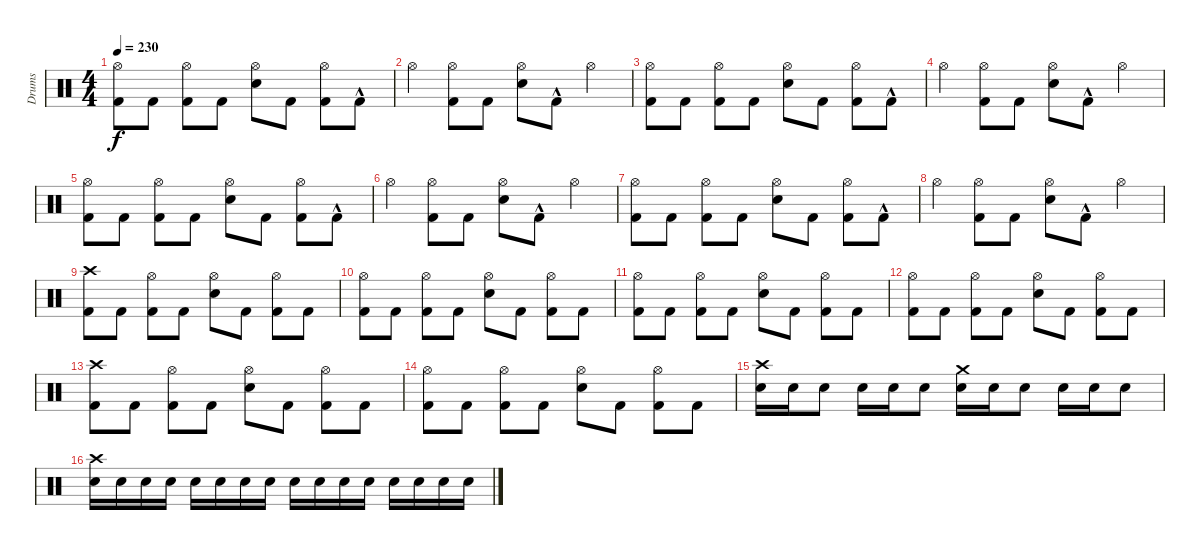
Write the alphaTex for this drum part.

\track ("Drums" "Drums") {instrument percussion}
\staff {score}
\articulation defaults
\ts (4 4)
\tempo 230
\clef neutral
\ks c
("Kick (hit) 2" "Hi-Hat (open)").8{dy f} "Kick (hit) 2".8 ("Hi-Hat (open)" "Kick (hit) 2").8 "Kick (hit) 2".8 ("Hi-Hat (open)" "Electric Snare (hit)").8 "Kick (hit) 2".8 ("Hi-Hat (open)" "Kick (hit) 2").8 "Kick (hit) 2"{hac}.8 |
"Hi-Hat (open)".4 ("Hi-Hat (open)" "Kick (hit) 2").8 "Kick (hit) 2".8 ("Hi-Hat (open)" "Electric Snare (hit)").8 "Kick (hit) 2"{hac}.8 "Hi-Hat (open)".4 |
("Hi-Hat (open)" "Kick (hit) 2").8 "Kick (hit) 2".8 ("Hi-Hat (open)" "Kick (hit) 2").8 "Kick (hit) 2".8 ("Hi-Hat (open)" "Electric Snare (hit)").8 "Kick (hit) 2".8 ("Hi-Hat (open)" "Kick (hit) 2").8 "Kick (hit) 2"{hac}.8 |
"Hi-Hat (open)".4 ("Hi-Hat (open)" "Kick (hit) 2").8 "Kick (hit) 2".8 ("Hi-Hat (open)" "Electric Snare (hit)").8 "Kick (hit) 2"{hac}.8 "Hi-Hat (open)".4 |
("Kick (hit) 2" "Hi-Hat (open)").8 "Kick (hit) 2".8 ("Hi-Hat (open)" "Kick (hit) 2").8 "Kick (hit) 2".8 ("Hi-Hat (open)" "Electric Snare (hit)").8 "Kick (hit) 2".8 ("Hi-Hat (open)" "Kick (hit) 2").8 "Kick (hit) 2"{hac}.8 |
"Hi-Hat (open)".4 ("Hi-Hat (open)" "Kick (hit) 2").8 "Kick (hit) 2".8 ("Hi-Hat (open)" "Electric Snare (hit)").8 "Kick (hit) 2"{hac}.8 "Hi-Hat (open)".4 |
("Hi-Hat (open)" "Kick (hit) 2").8 "Kick (hit) 2".8 ("Hi-Hat (open)" "Kick (hit) 2").8 "Kick (hit) 2".8 ("Hi-Hat (open)" "Electric Snare (hit)").8 "Kick (hit) 2".8 ("Hi-Hat (open)" "Kick (hit) 2").8 "Kick (hit) 2"{hac}.8 |
"Hi-Hat (open)".4 ("Hi-Hat (open)" "Kick (hit) 2").8 "Kick (hit) 2".8 ("Hi-Hat (open)" "Electric Snare (hit)").8 "Kick (hit) 2"{hac}.8 "Hi-Hat (open)".4 |
("Crash high (hit)" "Kick (hit) 2").8 "Kick (hit) 2".8 ("Hi-Hat (open)" "Kick (hit) 2").8 "Kick (hit) 2".8 ("Hi-Hat (open)" "Electric Snare (hit)").8 "Kick (hit) 2".8 ("Hi-Hat (open)" "Kick (hit) 2").8 "Kick (hit) 2".8 |
("Hi-Hat (open)" "Kick (hit) 2").8 "Kick (hit) 2".8 ("Hi-Hat (open)" "Kick (hit) 2").8 "Kick (hit) 2".8 ("Hi-Hat (open)" "Electric Snare (hit)").8 "Kick (hit) 2".8 ("Hi-Hat (open)" "Kick (hit) 2").8 "Kick (hit) 2".8 |
("Hi-Hat (open)" "Kick (hit) 2").8 "Kick (hit) 2".8 ("Hi-Hat (open)" "Kick (hit) 2").8 "Kick (hit) 2".8 ("Hi-Hat (open)" "Electric Snare (hit)").8 "Kick (hit) 2".8 ("Hi-Hat (open)" "Kick (hit) 2").8 "Kick (hit) 2".8 |
("Hi-Hat (open)" "Kick (hit) 2").8 "Kick (hit) 2".8 ("Hi-Hat (open)" "Kick (hit) 2").8 "Kick (hit) 2".8 ("Hi-Hat (open)" "Electric Snare (hit)").8 "Kick (hit) 2".8 ("Hi-Hat (open)" "Kick (hit) 2").8 "Kick (hit) 2".8 |
("Crash high (hit)" "Kick (hit) 2").8 "Kick (hit) 2".8 ("Hi-Hat (open)" "Kick (hit) 2").8 "Kick (hit) 2".8 ("Hi-Hat (open)" "Electric Snare (hit)").8 "Kick (hit) 2".8 ("Hi-Hat (open)" "Kick (hit) 2").8 "Kick (hit) 2".8 |
("Hi-Hat (open)" "Kick (hit) 2").8 "Kick (hit) 2".8 ("Hi-Hat (open)" "Kick (hit) 2").8 "Kick (hit) 2".8 ("Hi-Hat (open)" "Electric Snare (hit)").8 "Kick (hit) 2".8 ("Hi-Hat (open)" "Kick (hit) 2").8 "Kick (hit) 2".8 |
("Electric Snare (hit)" "Crash high (hit)").16 "Electric Snare (hit)".16 "Electric Snare (hit)".8 "Electric Snare (hit)".16 "Electric Snare (hit)".16 "Electric Snare (hit)".8 ("Electric Snare (hit)" "Crash medium (hit)").16 "Electric Snare (hit)".16 "Electric Snare (hit)".8 "Electric Snare (hit)".16 "Electric Snare (hit)".16 "Electric Snare (hit)".8 |
("Electric Snare (hit)" "Crash high (hit)").16 "Electric Snare (hit)".16 "Electric Snare (hit)".16 "Electric Snare (hit)".16 "Electric Snare (hit)".16 "Electric Snare (hit)".16 "Electric Snare (hit)".16 "Electric Snare (hit)".16 "Electric Snare (hit)".16 "Electric Snare (hit)".16 "Electric Snare (hit)".16 "Electric Snare (hit)".16 "Electric Snare (hit)".16 "Electric Snare (hit)".16 "Electric Snare (hit)".16 "Electric Snare (hit)".16
